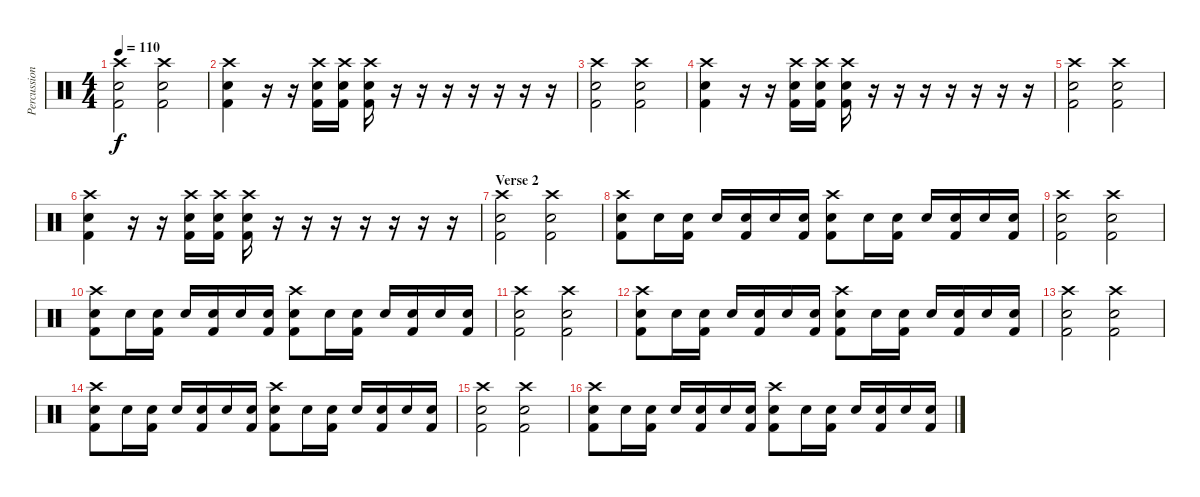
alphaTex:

\track ("Percussion" "Percussion") {instrument percussion}
\staff {score}
\articulation defaults
\ts (4 4)
\tempo 110
\clef neutral
\ks c
("Crash high (hit)" "Snare (hit) 2" "Kick (hit) 2").2{dy f} ("Kick (hit) 2" "Snare (hit) 2" "Crash high (hit)").2 |
("Crash high (hit)" "Kick (hit) 2" "Snare (hit) 2").4 r.16 r.16 ("Kick (hit) 2" "Snare (hit) 2" "Crash high (hit)").16 ("Crash high (hit)" "Kick (hit) 2" "Snare (hit) 2").16 ("Crash high (hit)" "Kick (hit) 2" "Snare (hit) 2").16 r.16 r.16 r.16 r.16 r.16 r.16 r.16 |
("Crash high (hit)" "Snare (hit) 2" "Kick (hit) 2").2 ("Kick (hit) 2" "Snare (hit) 2" "Crash high (hit)").2 |
("Crash high (hit)" "Kick (hit) 2" "Snare (hit) 2").4 r.16 r.16 ("Kick (hit) 2" "Snare (hit) 2" "Crash high (hit)").16 ("Crash high (hit)" "Kick (hit) 2" "Snare (hit) 2").16 ("Crash high (hit)" "Kick (hit) 2" "Snare (hit) 2").16 r.16 r.16 r.16 r.16 r.16 r.16 r.16 |
("Crash high (hit)" "Snare (hit) 2" "Kick (hit) 2").2 ("Kick (hit) 2" "Snare (hit) 2" "Crash high (hit)").2 |
("Crash high (hit)" "Kick (hit) 2" "Snare (hit) 2").4 r.16 r.16 ("Kick (hit) 2" "Snare (hit) 2" "Crash high (hit)").16 ("Crash high (hit)" "Kick (hit) 2" "Snare (hit) 2").16 ("Crash high (hit)" "Kick (hit) 2" "Snare (hit) 2").16 r.16 r.16 r.16 r.16 r.16 r.16 r.16 |
\section ("" "Verse 2")
("Kick (hit) 2" "Snare (hit) 2" "Crash high (hit)").2 ("Snare (hit) 2" "Kick (hit) 2" "Crash high (hit)").2 |
("Kick (hit) 2" "Snare (hit) 2" "Crash high (hit)").8 "Snare (hit) 2".16 ("Kick (hit) 2" "Snare (hit) 2").16 "Snare (hit) 2".16 ("Kick (hit) 2" "Snare (hit) 2").16 "Snare (hit) 2".16 ("Kick (hit) 2" "Snare (hit) 2").16 ("Kick (hit) 2" "Snare (hit) 2" "Crash high (hit)").8 "Snare (hit) 2".16 ("Kick (hit) 2" "Snare (hit) 2").16 "Snare (hit) 2".16 ("Kick (hit) 2" "Snare (hit) 2").16 "Snare (hit) 2".16 ("Kick (hit) 2" "Snare (hit) 2").16 |
("Kick (hit) 2" "Snare (hit) 2" "Crash high (hit)").2 ("Snare (hit) 2" "Kick (hit) 2" "Crash high (hit)").2 |
("Kick (hit) 2" "Snare (hit) 2" "Crash high (hit)").8 "Snare (hit) 2".16 ("Kick (hit) 2" "Snare (hit) 2").16 "Snare (hit) 2".16 ("Kick (hit) 2" "Snare (hit) 2").16 "Snare (hit) 2".16 ("Kick (hit) 2" "Snare (hit) 2").16 ("Kick (hit) 2" "Snare (hit) 2" "Crash high (hit)").8 "Snare (hit) 2".16 ("Kick (hit) 2" "Snare (hit) 2").16 "Snare (hit) 2".16 ("Kick (hit) 2" "Snare (hit) 2").16 "Snare (hit) 2".16 ("Kick (hit) 2" "Snare (hit) 2").16 |
("Kick (hit) 2" "Snare (hit) 2" "Crash high (hit)").2 ("Snare (hit) 2" "Kick (hit) 2" "Crash high (hit)").2 |
("Kick (hit) 2" "Snare (hit) 2" "Crash high (hit)").8 "Snare (hit) 2".16 ("Kick (hit) 2" "Snare (hit) 2").16 "Snare (hit) 2".16 ("Kick (hit) 2" "Snare (hit) 2").16 "Snare (hit) 2".16 ("Kick (hit) 2" "Snare (hit) 2").16 ("Kick (hit) 2" "Snare (hit) 2" "Crash high (hit)").8 "Snare (hit) 2".16 ("Kick (hit) 2" "Snare (hit) 2").16 "Snare (hit) 2".16 ("Kick (hit) 2" "Snare (hit) 2").16 "Snare (hit) 2".16 ("Kick (hit) 2" "Snare (hit) 2").16 |
("Kick (hit) 2" "Snare (hit) 2" "Crash high (hit)").2 ("Snare (hit) 2" "Kick (hit) 2" "Crash high (hit)").2 |
("Kick (hit) 2" "Snare (hit) 2" "Crash high (hit)").8 "Snare (hit) 2".16 ("Kick (hit) 2" "Snare (hit) 2").16 "Snare (hit) 2".16 ("Kick (hit) 2" "Snare (hit) 2").16 "Snare (hit) 2".16 ("Kick (hit) 2" "Snare (hit) 2").16 ("Kick (hit) 2" "Snare (hit) 2" "Crash high (hit)").8 "Snare (hit) 2".16 ("Kick (hit) 2" "Snare (hit) 2").16 "Snare (hit) 2".16 ("Kick (hit) 2" "Snare (hit) 2").16 "Snare (hit) 2".16 ("Kick (hit) 2" "Snare (hit) 2").16 |
("Kick (hit) 2" "Snare (hit) 2" "Crash high (hit)").2 ("Snare (hit) 2" "Kick (hit) 2" "Crash high (hit)").2 |
("Kick (hit) 2" "Snare (hit) 2" "Crash high (hit)").8 "Snare (hit) 2".16 ("Kick (hit) 2" "Snare (hit) 2").16 "Snare (hit) 2".16 ("Kick (hit) 2" "Snare (hit) 2").16 "Snare (hit) 2".16 ("Kick (hit) 2" "Snare (hit) 2").16 ("Kick (hit) 2" "Snare (hit) 2" "Crash high (hit)").8 "Snare (hit) 2".16 ("Kick (hit) 2" "Snare (hit) 2").16 "Snare (hit) 2".16 ("Kick (hit) 2" "Snare (hit) 2").16 "Snare (hit) 2".16 ("Kick (hit) 2" "Snare (hit) 2").16
